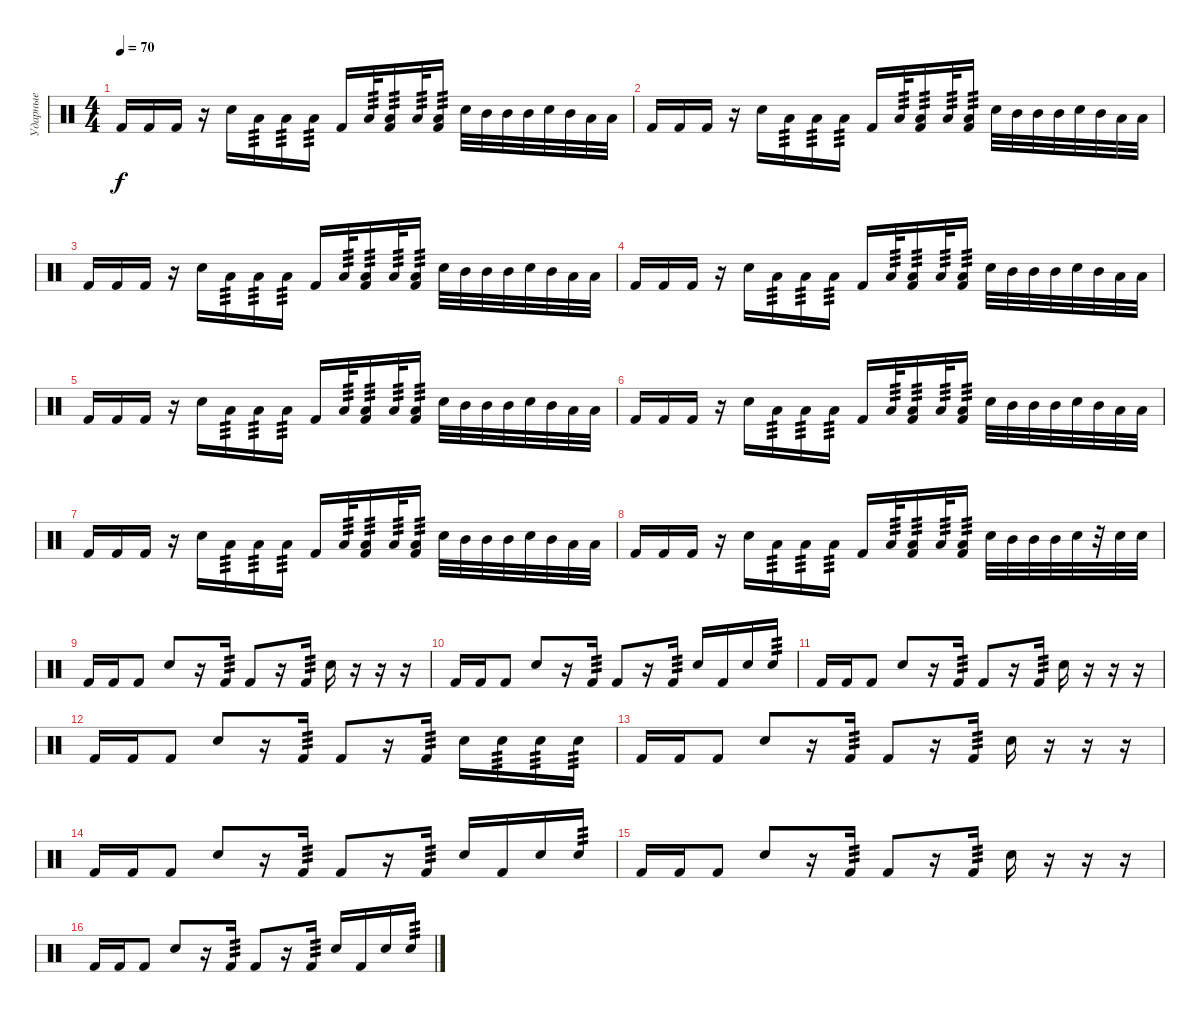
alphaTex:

\track ("Ударные" "Ударные") {instrument percussion}
\staff {score}
\articulation defaults
\ts (4 4)
\tempo 70
\clef neutral
\ks c "Kick (hit) 2".16{dy f} "Kick (hit) 2".16 "Kick (hit) 2".16
r.16 "Electric Snare (hit)".16 "Low Floor Tom (hit)".16{tp 3} "Low Floor Tom (hit)".16{tp 3} "Low Floor Tom (hit)".16{tp 3} "Kick (hit) 2".16 "Low Floor Tom (hit)".32{tp 3} ("Low Floor Tom (hit)" "Kick (hit) 2").16{tp 3} "Low Floor Tom (hit)".32{tp 3} ("Low Floor Tom (hit)" "Kick (hit) 2").16{tp 3} "Electric Snare (hit)".32 "Mid Tom (hit)".32 "Mid Tom (hit)".32 "Mid Tom (hit)".32 "Electric Snare (hit)".32 "Mid Tom (hit)".32 "Low Floor Tom (hit)".32 "Low Floor Tom (hit)".32 |
"Kick (hit) 2".16 "Kick (hit) 2".16 "Kick (hit) 2".16 r.16 "Electric Snare (hit)".16 "Low Floor Tom (hit)".16{tp 3} "Low Floor Tom (hit)".16{tp 3} "Low Floor Tom (hit)".16{tp 3} "Kick (hit) 2".16 "Low Floor Tom (hit)".32{tp 3} ("Low Floor Tom (hit)" "Kick (hit) 2").16{tp 3} "Low Floor Tom (hit)".32{tp 3} ("Low Floor Tom (hit)" "Kick (hit) 2").16{tp 3} "Electric Snare (hit)".32 "Mid Tom (hit)".32 "Mid Tom (hit)".32 "Mid Tom (hit)".32 "Electric Snare (hit)".32 "Mid Tom (hit)".32 "Low Floor Tom (hit)".32 "Low Floor Tom (hit)".32 |
"Kick (hit) 2".16 "Kick (hit) 2".16 "Kick (hit) 2".16 r.16 "Electric Snare (hit)".16 "Low Floor Tom (hit)".16{tp 3} "Low Floor Tom (hit)".16{tp 3} "Low Floor Tom (hit)".16{tp 3} "Kick (hit) 2".16 "Low Floor Tom (hit)".32{tp 3} ("Low Floor Tom (hit)" "Kick (hit) 2").16{tp 3} "Low Floor Tom (hit)".32{tp 3} ("Low Floor Tom (hit)" "Kick (hit) 2").16{tp 3} "Electric Snare (hit)".32 "Mid Tom (hit)".32 "Mid Tom (hit)".32 "Mid Tom (hit)".32 "Electric Snare (hit)".32 "Mid Tom (hit)".32 "Low Floor Tom (hit)".32 "Low Floor Tom (hit)".32 |
"Kick (hit) 2".16 "Kick (hit) 2".16 "Kick (hit) 2".16 r.16 "Electric Snare (hit)".16 "Low Floor Tom (hit)".16{tp 3} "Low Floor Tom (hit)".16{tp 3} "Low Floor Tom (hit)".16{tp 3} "Kick (hit) 2".16 "Low Floor Tom (hit)".32{tp 3} ("Low Floor Tom (hit)" "Kick (hit) 2").16{tp 3} "Low Floor Tom (hit)".32{tp 3} ("Low Floor Tom (hit)" "Kick (hit) 2").16{tp 3} "Electric Snare (hit)".32 "Mid Tom (hit)".32 "Mid Tom (hit)".32 "Mid Tom (hit)".32 "Electric Snare (hit)".32 "Mid Tom (hit)".32 "Low Floor Tom (hit)".32 "Low Floor Tom (hit)".32 |
"Kick (hit) 2".16 "Kick (hit) 2".16 "Kick (hit) 2".16 r.16 "Electric Snare (hit)".16 "Low Floor Tom (hit)".16{tp 3} "Low Floor Tom (hit)".16{tp 3} "Low Floor Tom (hit)".16{tp 3} "Kick (hit) 2".16 "Low Floor Tom (hit)".32{tp 3} ("Low Floor Tom (hit)" "Kick (hit) 2").16{tp 3} "Low Floor Tom (hit)".32{tp 3} ("Low Floor Tom (hit)" "Kick (hit) 2").16{tp 3} "Electric Snare (hit)".32 "Mid Tom (hit)".32 "Mid Tom (hit)".32 "Mid Tom (hit)".32 "Electric Snare (hit)".32 "Mid Tom (hit)".32 "Low Floor Tom (hit)".32 "Low Floor Tom (hit)".32 |
"Kick (hit) 2".16 "Kick (hit) 2".16 "Kick (hit) 2".16 r.16 "Electric Snare (hit)".16 "Low Floor Tom (hit)".16{tp 3} "Low Floor Tom (hit)".16{tp 3} "Low Floor Tom (hit)".16{tp 3} "Kick (hit) 2".16 "Low Floor Tom (hit)".32{tp 3} ("Low Floor Tom (hit)" "Kick (hit) 2").16{tp 3} "Low Floor Tom (hit)".32{tp 3} ("Low Floor Tom (hit)" "Kick (hit) 2").16{tp 3} "Electric Snare (hit)".32 "Mid Tom (hit)".32 "Mid Tom (hit)".32 "Mid Tom (hit)".32 "Electric Snare (hit)".32 "Mid Tom (hit)".32 "Low Floor Tom (hit)".32 "Low Floor Tom (hit)".32 |
"Kick (hit) 2".16 "Kick (hit) 2".16 "Kick (hit) 2".16 r.16 "Electric Snare (hit)".16 "Low Floor Tom (hit)".16{tp 3} "Low Floor Tom (hit)".16{tp 3} "Low Floor Tom (hit)".16{tp 3} "Kick (hit) 2".16 "Low Floor Tom (hit)".32{tp 3} ("Low Floor Tom (hit)" "Kick (hit) 2").16{tp 3} "Low Floor Tom (hit)".32{tp 3} ("Low Floor Tom (hit)" "Kick (hit) 2").16{tp 3} "Electric Snare (hit)".32 "Mid Tom (hit)".32 "Mid Tom (hit)".32 "Mid Tom (hit)".32 "Electric Snare (hit)".32 "Mid Tom (hit)".32 "Low Floor Tom (hit)".32 "Low Floor Tom (hit)".32 |
"Kick (hit) 2".16 "Kick (hit) 2".16 "Kick (hit) 2".16 r.16 "Electric Snare (hit)".16 "Low Floor Tom (hit)".16{tp 3} "Low Floor Tom (hit)".16{tp 3} "Low Floor Tom (hit)".16{tp 3} "Kick (hit) 2".16 "Low Floor Tom (hit)".32{tp 3} ("Low Floor Tom (hit)" "Kick (hit) 2").16{tp 3} "Low Floor Tom (hit)".32{tp 3} ("Low Floor Tom (hit)" "Kick (hit) 2").16{tp 3} "Electric Snare (hit)".32 "Mid Tom (hit)".32 "Mid Tom (hit)".32 "Mid Tom (hit)".32 "Electric Snare (hit)".32 r.32 "Electric Snare (hit)".32 "Electric Snare (hit)".32 |
"Kick (hit) 2".16 "Kick (hit) 2".16 "Kick (hit) 2".8 "Electric Snare (hit)".8 r.16 "Kick (hit) 2".16{tp 3} "Kick (hit) 2".8 r.16 "Kick (hit) 2".16{tp 3} "Electric Snare (hit)".16 r.16 r.16 r.16 |
"Kick (hit) 2".16 "Kick (hit) 2".16 "Kick (hit) 2".8 "Electric Snare (hit)".8 r.16 "Kick (hit) 2".16{tp 3} "Kick (hit) 2".8 r.16 "Kick (hit) 2".16{tp 3} "Electric Snare (hit)".16 "Kick (hit) 2".16 "Electric Snare (hit)".16 "Electric Snare (hit)".16{tp 3} |
"Kick (hit) 2".16 "Kick (hit) 2".16 "Kick (hit) 2".8 "Electric Snare (hit)".8 r.16 "Kick (hit) 2".16{tp 3} "Kick (hit) 2".8 r.16 "Kick (hit) 2".16{tp 3} "Electric Snare (hit)".16 r.16 r.16 r.16 |
"Kick (hit) 2".16 "Kick (hit) 2".16 "Kick (hit) 2".8 "Electric Snare (hit)".8 r.16 "Kick (hit) 2".16{tp 3} "Kick (hit) 2".8 r.16 "Kick (hit) 2".16{tp 3} "Electric Snare (hit)".16 "Electric Snare (hit)".16{tp 3} "Electric Snare (hit)".16{tp 3} "Electric Snare (hit)".16{tp 3} |
"Kick (hit) 2".16 "Kick (hit) 2".16 "Kick (hit) 2".8 "Electric Snare (hit)".8 r.16 "Kick (hit) 2".16{tp 3} "Kick (hit) 2".8 r.16 "Kick (hit) 2".16{tp 3} "Electric Snare (hit)".16 r.16 r.16 r.16 |
"Kick (hit) 2".16 "Kick (hit) 2".16 "Kick (hit) 2".8 "Electric Snare (hit)".8 r.16 "Kick (hit) 2".16{tp 3} "Kick (hit) 2".8 r.16 "Kick (hit) 2".16{tp 3} "Electric Snare (hit)".16 "Kick (hit) 2".16 "Electric Snare (hit)".16 "Electric Snare (hit)".16{tp 3} |
"Kick (hit) 2".16 "Kick (hit) 2".16 "Kick (hit) 2".8 "Electric Snare (hit)".8 r.16 "Kick (hit) 2".16{tp 3} "Kick (hit) 2".8 r.16 "Kick (hit) 2".16{tp 3} "Electric Snare (hit)".16 r.16 r.16 r.16 |
"Kick (hit) 2".16 "Kick (hit) 2".16 "Kick (hit) 2".8 "Electric Snare (hit)".8 r.16 "Kick (hit) 2".16{tp 3} "Kick (hit) 2".8 r.16 "Kick (hit) 2".16{tp 3} "Electric Snare (hit)".16 "Kick (hit) 2".16 "Electric Snare (hit)".16 "Electric Snare (hit)".16{tp 3}
